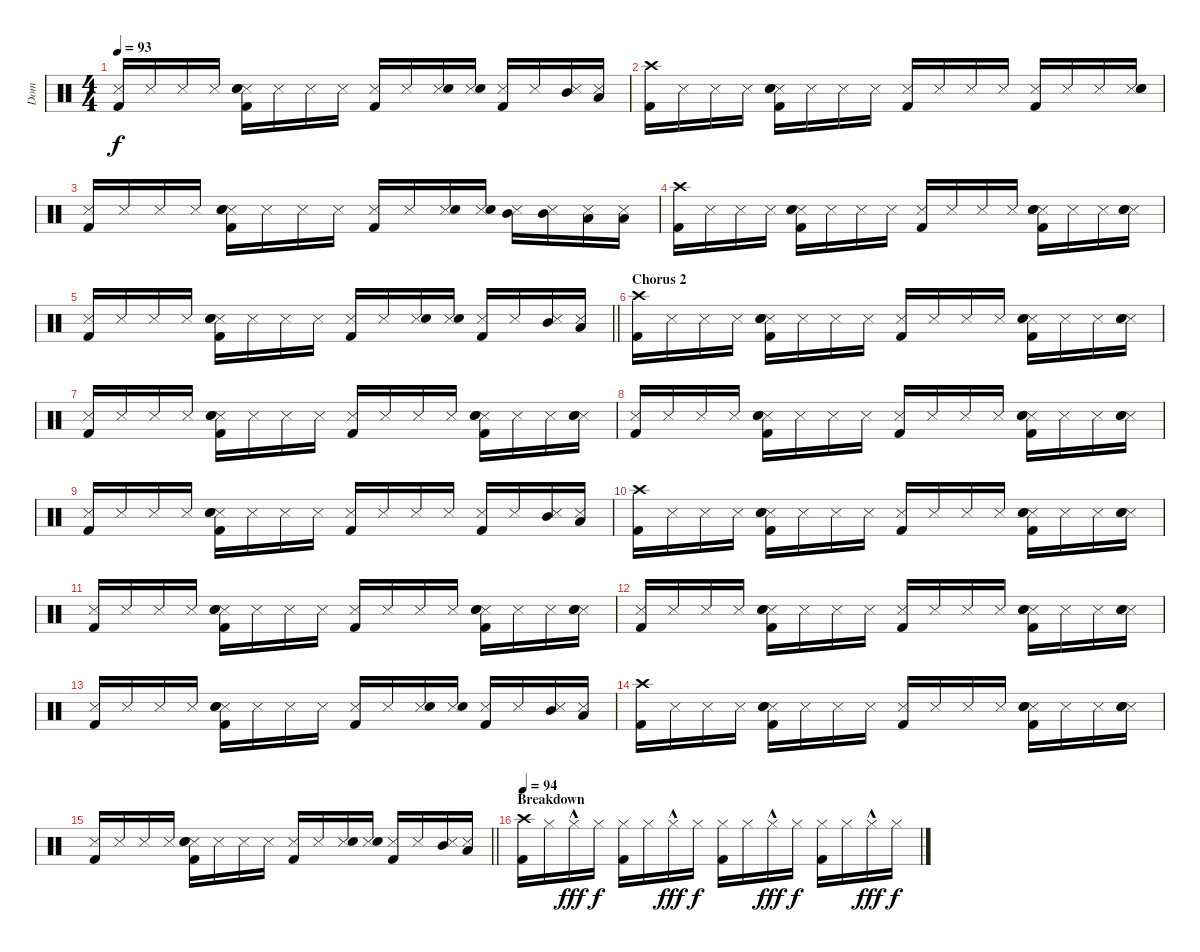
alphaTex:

\track ("Dom" "Dom") {instrument percussion}
\staff {score}
\articulation defaults
\ts (4 4)
\tempo 93
\clef neutral
\ks c
("Snare (side stick) 3" "Kick (hit) 2").16{dy f} "Snare (side stick) 3".16 "Snare (side stick) 3".16 "Snare (side stick) 3".16 ("Snare (side stick) 3" "Electric Snare (hit)" "Snare (hit) 2" "Kick (hit) 2").16 "Snare (side stick) 3".16 "Snare (side stick) 3".16 "Snare (side stick) 3".16 ("Snare (side stick) 3" "Kick (hit) 2").16 "Snare (side stick) 3".16 ("Snare (side stick) 3" "Snare (hit) 2").16 ("Snare (side stick) 3" "Snare (hit) 2").16 ("Snare (side stick) 3" "Kick (hit) 2").16 "Snare (side stick) 3".16 ("Snare (side stick) 3" "Mid Tom (hit)").16 ("Snare (side stick) 3" "Low Tom (hit)").16 |
("Crash high (hit)" "Kick (hit) 2").16 "Snare (side stick) 3".16 "Snare (side stick) 3".16 "Snare (side stick) 3".16 ("Snare (side stick) 3" "Electric Snare (hit)" "Snare (hit) 2" "Kick (hit) 2").16 "Snare (side stick) 3".16 "Snare (side stick) 3".16 "Snare (side stick) 3".16 ("Snare (side stick) 3" "Kick (hit) 2").16 "Snare (side stick) 3".16 "Snare (side stick) 3".16 "Snare (side stick) 3".16 ("Snare (side stick) 3" "Kick (hit) 2").16 "Snare (side stick) 3".16 "Snare (side stick) 3".16 ("Snare (side stick) 3" "Electric Snare (hit)" "Snare (hit) 2").16 |
("Snare (side stick) 3" "Kick (hit) 2").16 "Snare (side stick) 3".16 "Snare (side stick) 3".16 "Snare (side stick) 3".16 ("Snare (side stick) 3" "Electric Snare (hit)" "Snare (hit) 2" "Kick (hit) 2").16 "Snare (side stick) 3".16 "Snare (side stick) 3".16 "Snare (side stick) 3".16 ("Snare (side stick) 3" "Kick (hit) 2").16 "Snare (side stick) 3".16 ("Snare (side stick) 3" "Snare (hit) 2").16 ("Snare (side stick) 3" "Snare (hit) 2").16 ("Snare (side stick) 3" "Mid Tom (hit)").16 ("Snare (side stick) 3" "Mid Tom (hit)").16 ("Snare (side stick) 3" "Low Tom (hit)").16 ("Snare (side stick) 3" "Low Tom (hit)").16 |
("Crash high (hit)" "Kick (hit) 2").16 "Snare (side stick) 3".16 "Snare (side stick) 3".16 "Snare (side stick) 3".16 ("Snare (side stick) 3" "Electric Snare (hit)" "Snare (hit) 2" "Kick (hit) 2").16 "Snare (side stick) 3".16 "Snare (side stick) 3".16 "Snare (side stick) 3".16 ("Snare (side stick) 3" "Kick (hit) 2").16 "Snare (side stick) 3".16 "Snare (side stick) 3".16 "Snare (side stick) 3".16 ("Snare (side stick) 3" "Electric Snare (hit)" "Snare (hit) 2" "Kick (hit) 2").16 "Snare (side stick) 3".16 "Snare (side stick) 3".16 ("Snare (side stick) 3" "Electric Snare (hit)" "Snare (hit) 2").16 |
\barLineRight lightlight
("Snare (side stick) 3" "Kick (hit) 2").16 "Snare (side stick) 3".16 "Snare (side stick) 3".16 "Snare (side stick) 3".16 ("Snare (side stick) 3" "Electric Snare (hit)" "Snare (hit) 2" "Kick (hit) 2").16 "Snare (side stick) 3".16 "Snare (side stick) 3".16 "Snare (side stick) 3".16 ("Snare (side stick) 3" "Kick (hit) 2").16 "Snare (side stick) 3".16 ("Snare (side stick) 3" "Snare (hit) 2").16 ("Snare (side stick) 3" "Snare (hit) 2").16 ("Snare (side stick) 3" "Kick (hit) 2").16 "Snare (side stick) 3".16 ("Snare (side stick) 3" "Mid Tom (hit)").16 ("Snare (side stick) 3" "Low Tom (hit)").16 |
\section ("" "Chorus 2")
("Crash high (hit)" "Kick (hit) 2").16 "Snare (side stick) 3".16 "Snare (side stick) 3".16 "Snare (side stick) 3".16 ("Snare (side stick) 3" "Electric Snare (hit)" "Snare (hit) 2" "Kick (hit) 2").16 "Snare (side stick) 3".16 "Snare (side stick) 3".16 "Snare (side stick) 3".16 ("Snare (side stick) 3" "Kick (hit) 2").16 "Snare (side stick) 3".16 "Snare (side stick) 3".16 "Snare (side stick) 3".16 ("Snare (side stick) 3" "Electric Snare (hit)" "Snare (hit) 2" "Kick (hit) 2").16 "Snare (side stick) 3".16 "Snare (side stick) 3".16 ("Snare (side stick) 3" "Electric Snare (hit)" "Snare (hit) 2").16 |
("Snare (side stick) 3" "Kick (hit) 2").16 "Snare (side stick) 3".16 "Snare (side stick) 3".16 "Snare (side stick) 3".16 ("Snare (side stick) 3" "Electric Snare (hit)" "Snare (hit) 2" "Kick (hit) 2").16 "Snare (side stick) 3".16 "Snare (side stick) 3".16 "Snare (side stick) 3".16 ("Snare (side stick) 3" "Kick (hit) 2").16 "Snare (side stick) 3".16 "Snare (side stick) 3".16 "Snare (side stick) 3".16 ("Snare (side stick) 3" "Electric Snare (hit)" "Snare (hit) 2" "Kick (hit) 2").16 "Snare (side stick) 3".16 "Snare (side stick) 3".16 ("Snare (side stick) 3" "Electric Snare (hit)" "Snare (hit) 2").16 |
("Snare (side stick) 3" "Kick (hit) 2").16 "Snare (side stick) 3".16 "Snare (side stick) 3".16 "Snare (side stick) 3".16 ("Snare (side stick) 3" "Electric Snare (hit)" "Snare (hit) 2" "Kick (hit) 2").16 "Snare (side stick) 3".16 "Snare (side stick) 3".16 "Snare (side stick) 3".16 ("Snare (side stick) 3" "Kick (hit) 2").16 "Snare (side stick) 3".16 "Snare (side stick) 3".16 "Snare (side stick) 3".16 ("Snare (side stick) 3" "Electric Snare (hit)" "Snare (hit) 2" "Kick (hit) 2").16 "Snare (side stick) 3".16 "Snare (side stick) 3".16 ("Snare (side stick) 3" "Electric Snare (hit)" "Snare (hit) 2").16 |
("Snare (side stick) 3" "Kick (hit) 2").16 "Snare (side stick) 3".16 "Snare (side stick) 3".16 "Snare (side stick) 3".16 ("Snare (side stick) 3" "Electric Snare (hit)" "Snare (hit) 2" "Kick (hit) 2").16 "Snare (side stick) 3".16 "Snare (side stick) 3".16 "Snare (side stick) 3".16 ("Snare (side stick) 3" "Kick (hit) 2").16 "Snare (side stick) 3".16 "Snare (side stick) 3".16 "Snare (side stick) 3".16 ("Snare (side stick) 3" "Kick (hit) 2").16 "Snare (side stick) 3".16 ("Snare (side stick) 3" "Mid Tom (hit)").16 ("Snare (side stick) 3" "Low Tom (hit)").16 |
("Crash high (hit)" "Kick (hit) 2").16 "Snare (side stick) 3".16 "Snare (side stick) 3".16 "Snare (side stick) 3".16 ("Snare (side stick) 3" "Electric Snare (hit)" "Snare (hit) 2" "Kick (hit) 2").16 "Snare (side stick) 3".16 "Snare (side stick) 3".16 "Snare (side stick) 3".16 ("Snare (side stick) 3" "Kick (hit) 2").16 "Snare (side stick) 3".16 "Snare (side stick) 3".16 "Snare (side stick) 3".16 ("Snare (side stick) 3" "Electric Snare (hit)" "Snare (hit) 2" "Kick (hit) 2").16 "Snare (side stick) 3".16 "Snare (side stick) 3".16 ("Snare (side stick) 3" "Electric Snare (hit)" "Snare (hit) 2").16 |
("Snare (side stick) 3" "Kick (hit) 2").16 "Snare (side stick) 3".16 "Snare (side stick) 3".16 "Snare (side stick) 3".16 ("Snare (side stick) 3" "Electric Snare (hit)" "Snare (hit) 2" "Kick (hit) 2").16 "Snare (side stick) 3".16 "Snare (side stick) 3".16 "Snare (side stick) 3".16 ("Snare (side stick) 3" "Kick (hit) 2").16 "Snare (side stick) 3".16 "Snare (side stick) 3".16 "Snare (side stick) 3".16 ("Snare (side stick) 3" "Electric Snare (hit)" "Snare (hit) 2" "Kick (hit) 2").16 "Snare (side stick) 3".16 "Snare (side stick) 3".16 ("Snare (side stick) 3" "Electric Snare (hit)" "Snare (hit) 2").16 |
("Snare (side stick) 3" "Kick (hit) 2").16 "Snare (side stick) 3".16 "Snare (side stick) 3".16 "Snare (side stick) 3".16 ("Snare (side stick) 3" "Electric Snare (hit)" "Snare (hit) 2" "Kick (hit) 2").16 "Snare (side stick) 3".16 "Snare (side stick) 3".16 "Snare (side stick) 3".16 ("Snare (side stick) 3" "Kick (hit) 2").16 "Snare (side stick) 3".16 "Snare (side stick) 3".16 "Snare (side stick) 3".16 ("Snare (side stick) 3" "Electric Snare (hit)" "Snare (hit) 2" "Kick (hit) 2").16 "Snare (side stick) 3".16 "Snare (side stick) 3".16 ("Snare (side stick) 3" "Electric Snare (hit)" "Snare (hit) 2").16 |
("Snare (side stick) 3" "Kick (hit) 2").16 "Snare (side stick) 3".16 "Snare (side stick) 3".16 "Snare (side stick) 3".16 ("Snare (side stick) 3" "Electric Snare (hit)" "Snare (hit) 2" "Kick (hit) 2").16 "Snare (side stick) 3".16 "Snare (side stick) 3".16 "Snare (side stick) 3".16 ("Snare (side stick) 3" "Kick (hit) 2").16 "Snare (side stick) 3".16 ("Snare (side stick) 3" "Snare (hit) 2").16 ("Snare (side stick) 3" "Snare (hit) 2").16 ("Snare (side stick) 3" "Kick (hit) 2").16 "Snare (side stick) 3".16 ("Snare (side stick) 3" "Mid Tom (hit)").16 ("Snare (side stick) 3" "Low Tom (hit)").16 |
("Crash high (hit)" "Kick (hit) 2").16 "Snare (side stick) 3".16 "Snare (side stick) 3".16 "Snare (side stick) 3".16 ("Snare (side stick) 3" "Electric Snare (hit)" "Snare (hit) 2" "Kick (hit) 2").16 "Snare (side stick) 3".16 "Snare (side stick) 3".16 "Snare (side stick) 3".16 ("Snare (side stick) 3" "Kick (hit) 2").16 "Snare (side stick) 3".16 "Snare (side stick) 3".16 "Snare (side stick) 3".16 ("Snare (side stick) 3" "Electric Snare (hit)" "Snare (hit) 2" "Kick (hit) 2").16 "Snare (side stick) 3".16 "Snare (side stick) 3".16 ("Snare (side stick) 3" "Electric Snare (hit)" "Snare (hit) 2").16 |
\barLineRight lightlight
("Snare (side stick) 3" "Kick (hit) 2").16 "Snare (side stick) 3".16 "Snare (side stick) 3".16 "Snare (side stick) 3".16 ("Snare (side stick) 3" "Electric Snare (hit)" "Snare (hit) 2" "Kick (hit) 2").16 "Snare (side stick) 3".16 "Snare (side stick) 3".16 "Snare (side stick) 3".16 ("Snare (side stick) 3" "Kick (hit) 2").16 "Snare (side stick) 3".16 ("Snare (side stick) 3" "Snare (hit) 2").16 ("Snare (side stick) 3" "Snare (hit) 2").16 ("Snare (side stick) 3" "Kick (hit) 2").16 "Snare (side stick) 3".16 ("Snare (side stick) 3" "Mid Tom (hit)").16 ("Snare (side stick) 3" "Low Tom (hit)").16 |
\section ("" "Breakdown")
\tempo 94
("Crash high (hit)" "Kick (hit) 2").16 "Hi-Hat (closed)".16 "Hi-Hat (closed)"{hac}.16{dy fff} "Hi-Hat (closed)".16{dy f} ("Hi-Hat (closed)" "Kick (hit) 2").16 "Hi-Hat (closed)".16 "Hi-Hat (closed)"{hac}.16{dy fff} "Hi-Hat (closed)".16{dy f} ("Hi-Hat (closed)" "Kick (hit) 2").16 "Hi-Hat (closed)".16 "Hi-Hat (closed)"{hac}.16{dy fff} "Hi-Hat (closed)".16{dy f} ("Hi-Hat (closed)" "Kick (hit) 2").16 "Hi-Hat (closed)".16 "Hi-Hat (closed)"{hac}.16{dy fff} "Hi-Hat (closed)".16{dy f}
